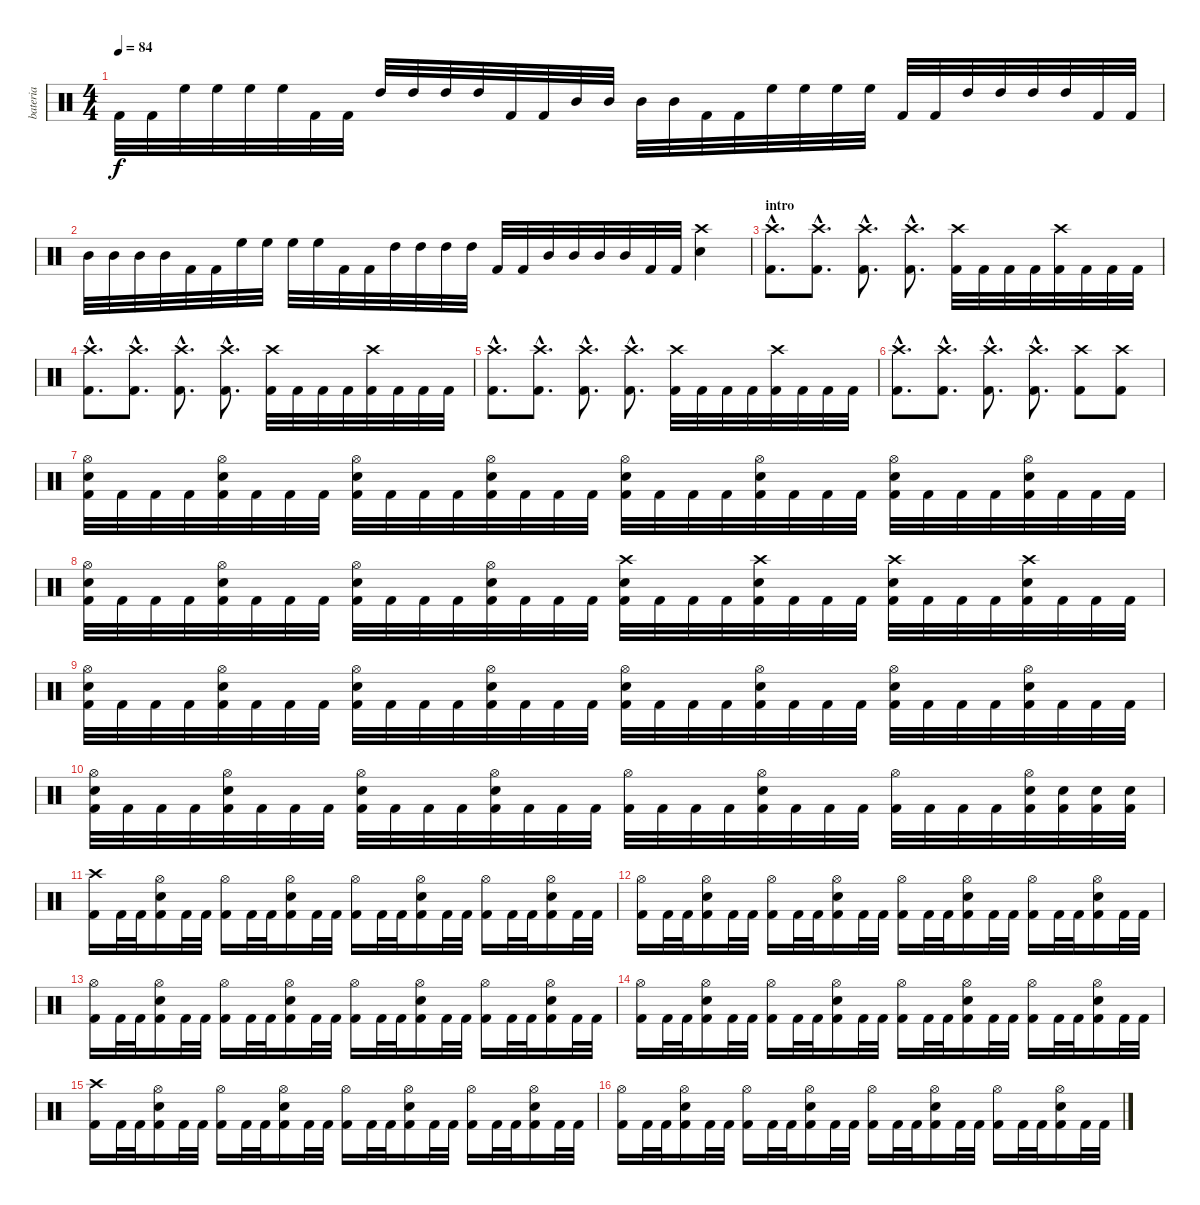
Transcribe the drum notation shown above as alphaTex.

\track ("bateria" "bateria") {instrument percussion}
\staff {score}
\articulation defaults
\ts (4 4)
\tempo 84
\clef neutral
\ks c "Kick (hit) 2".32{dy f} "Kick (hit) 2".32 "High Floor Tom (hit)".32 "High Floor Tom (hit)".32 "High Floor Tom (hit)".32 "High Floor Tom (hit)".32 "Kick (hit) 2".32 "Kick (hit) 2".32 "High Tom (hit)".32 "High Tom (hit)".32 "High Tom (hit)".32 "High Tom (hit)".32 "Kick (hit) 2".32 "Kick (hit) 2".32 "Mid Tom (hit)".32 "Mid Tom (hit)".32 "Mid Tom (hit)".32 "Mid Tom (hit)".32 "Kick (hit) 2".32 "Kick (hit) 2".32 "High Floor Tom (hit)".32 "High Floor Tom (hit)".32 "High Floor Tom (hit)".32 "High Floor Tom (hit)".32 "Kick (hit) 2".32 "Kick (hit) 2".32 "High Tom (hit)".32 "High Tom (hit)".32 "High Tom (hit)".32 "High Tom (hit)".32 "Kick (hit) 2".32 "Kick (hit) 2".32
|
"Mid Tom (hit)".32 "Mid Tom (hit)".32 "Mid Tom (hit)".32 "Mid Tom (hit)".32 "Kick (hit) 2".32 "Kick (hit) 2".32 "High Floor Tom (hit)".32 "High Floor Tom (hit)".32 "High Floor Tom (hit)".32 "High Floor Tom (hit)".32 "Kick (hit) 2".32 "Kick (hit) 2".32 "High Tom (hit)".32 "High Tom (hit)".32 "High Tom (hit)".32 "High Tom (hit)".32 "Kick (hit) 2".32 "Kick (hit) 2".32 "Mid Tom (hit)".32 "Mid Tom (hit)".32 "Mid Tom (hit)".32 "Mid Tom (hit)".32 "Kick (hit) 2".32 "Kick (hit) 2".32 ("Electric Snare (hit)" "Crash high (hit)").4 |
\section ("" "intro")
("Kick (hit) 2"{hac} "Crash high (hit)"{hac}).8{d} ("Kick (hit) 2"{hac} "Crash high (hit)"{hac}).8{d} ("Kick (hit) 2"{hac} "Crash high (hit)"{hac}).8{d} ("Kick (hit) 2"{hac} "Crash high (hit)"{hac}).8{d} ("Kick (hit) 2" "Crash high (hit)").32 "Kick (hit) 2".32 "Kick (hit) 2".32 "Kick (hit) 2".32 ("Kick (hit) 2" "Crash high (hit)").32 "Kick (hit) 2".32 "Kick (hit) 2".32 "Kick (hit) 2".32 |
("Kick (hit) 2"{hac} "Crash high (hit)"{hac}).8{d} ("Kick (hit) 2"{hac} "Crash high (hit)"{hac}).8{d} ("Kick (hit) 2"{hac} "Crash high (hit)"{hac}).8{d} ("Kick (hit) 2"{hac} "Crash high (hit)"{hac}).8{d} ("Kick (hit) 2" "Crash high (hit)").32 "Kick (hit) 2".32 "Kick (hit) 2".32 "Kick (hit) 2".32 ("Kick (hit) 2" "Crash high (hit)").32 "Kick (hit) 2".32 "Kick (hit) 2".32 "Kick (hit) 2".32 |
("Kick (hit) 2"{hac} "Crash high (hit)"{hac}).8{d} ("Kick (hit) 2"{hac} "Crash high (hit)"{hac}).8{d} ("Kick (hit) 2"{hac} "Crash high (hit)"{hac}).8{d} ("Kick (hit) 2"{hac} "Crash high (hit)"{hac}).8{d} ("Kick (hit) 2" "Crash high (hit)").32 "Kick (hit) 2".32 "Kick (hit) 2".32 "Kick (hit) 2".32 ("Kick (hit) 2" "Crash high (hit)").32 "Kick (hit) 2".32 "Kick (hit) 2".32 "Kick (hit) 2".32 |
("Kick (hit) 2"{hac} "Crash high (hit)"{hac}).8{d} ("Kick (hit) 2"{hac} "Crash high (hit)"{hac}).8{d} ("Kick (hit) 2"{hac} "Crash high (hit)"{hac}).8{d} ("Kick (hit) 2"{hac} "Crash high (hit)"{hac}).8{d} ("Kick (hit) 2" "Crash high (hit)").8 ("Kick (hit) 2" "Crash high (hit)").8 |
("Kick (hit) 2" "Electric Snare (hit)" "Hi-Hat (open)").32 "Kick (hit) 2".32 "Kick (hit) 2".32 "Kick (hit) 2".32 ("Kick (hit) 2" "Electric Snare (hit)" "Hi-Hat (open)").32 "Kick (hit) 2".32 "Kick (hit) 2".32 "Kick (hit) 2".32 ("Kick (hit) 2" "Electric Snare (hit)" "Hi-Hat (open)").32 "Kick (hit) 2".32 "Kick (hit) 2".32 "Kick (hit) 2".32 ("Kick (hit) 2" "Electric Snare (hit)" "Hi-Hat (open)").32 "Kick (hit) 2".32 "Kick (hit) 2".32 "Kick (hit) 2".32 ("Kick (hit) 2" "Electric Snare (hit)" "Hi-Hat (open)").32 "Kick (hit) 2".32 "Kick (hit) 2".32 "Kick (hit) 2".32 ("Kick (hit) 2" "Electric Snare (hit)" "Hi-Hat (open)").32 "Kick (hit) 2".32 "Kick (hit) 2".32 "Kick (hit) 2".32 ("Kick (hit) 2" "Electric Snare (hit)" "Hi-Hat (open)").32 "Kick (hit) 2".32 "Kick (hit) 2".32 "Kick (hit) 2".32 ("Kick (hit) 2" "Electric Snare (hit)" "Hi-Hat (open)").32 "Kick (hit) 2".32 "Kick (hit) 2".32 "Kick (hit) 2".32 |
("Kick (hit) 2" "Electric Snare (hit)" "Hi-Hat (open)").32 "Kick (hit) 2".32 "Kick (hit) 2".32 "Kick (hit) 2".32 ("Kick (hit) 2" "Electric Snare (hit)" "Hi-Hat (open)").32 "Kick (hit) 2".32 "Kick (hit) 2".32 "Kick (hit) 2".32 ("Kick (hit) 2" "Electric Snare (hit)" "Hi-Hat (open)").32 "Kick (hit) 2".32 "Kick (hit) 2".32 "Kick (hit) 2".32 ("Kick (hit) 2" "Electric Snare (hit)" "Hi-Hat (open)").32 "Kick (hit) 2".32 "Kick (hit) 2".32 "Kick (hit) 2".32 ("Kick (hit) 2" "Electric Snare (hit)" "Crash high (hit)").32 "Kick (hit) 2".32 "Kick (hit) 2".32 "Kick (hit) 2".32 ("Kick (hit) 2" "Electric Snare (hit)" "Crash high (hit)").32 "Kick (hit) 2".32 "Kick (hit) 2".32 "Kick (hit) 2".32 ("Kick (hit) 2" "Electric Snare (hit)" "Crash high (hit)").32 "Kick (hit) 2".32 "Kick (hit) 2".32 "Kick (hit) 2".32 ("Kick (hit) 2" "Electric Snare (hit)" "Crash high (hit)").32 "Kick (hit) 2".32 "Kick (hit) 2".32 "Kick (hit) 2".32 |
("Kick (hit) 2" "Electric Snare (hit)" "Hi-Hat (open)").32 "Kick (hit) 2".32 "Kick (hit) 2".32 "Kick (hit) 2".32 ("Kick (hit) 2" "Electric Snare (hit)" "Hi-Hat (open)").32 "Kick (hit) 2".32 "Kick (hit) 2".32 "Kick (hit) 2".32 ("Kick (hit) 2" "Electric Snare (hit)" "Hi-Hat (open)").32 "Kick (hit) 2".32 "Kick (hit) 2".32 "Kick (hit) 2".32 ("Kick (hit) 2" "Electric Snare (hit)" "Hi-Hat (open)").32 "Kick (hit) 2".32 "Kick (hit) 2".32 "Kick (hit) 2".32 ("Kick (hit) 2" "Electric Snare (hit)" "Hi-Hat (open)").32 "Kick (hit) 2".32 "Kick (hit) 2".32 "Kick (hit) 2".32 ("Kick (hit) 2" "Electric Snare (hit)" "Hi-Hat (open)").32 "Kick (hit) 2".32 "Kick (hit) 2".32 "Kick (hit) 2".32 ("Kick (hit) 2" "Electric Snare (hit)" "Hi-Hat (open)").32 "Kick (hit) 2".32 "Kick (hit) 2".32 "Kick (hit) 2".32 ("Kick (hit) 2" "Electric Snare (hit)" "Hi-Hat (open)").32 "Kick (hit) 2".32 "Kick (hit) 2".32 "Kick (hit) 2".32 |
("Kick (hit) 2" "Electric Snare (hit)" "Hi-Hat (open)").32 "Kick (hit) 2".32 "Kick (hit) 2".32 "Kick (hit) 2".32 ("Kick (hit) 2" "Electric Snare (hit)" "Hi-Hat (open)").32 "Kick (hit) 2".32 "Kick (hit) 2".32 "Kick (hit) 2".32 ("Kick (hit) 2" "Electric Snare (hit)" "Hi-Hat (open)").32 "Kick (hit) 2".32 "Kick (hit) 2".32 "Kick (hit) 2".32 ("Kick (hit) 2" "Electric Snare (hit)" "Hi-Hat (open)").32 "Kick (hit) 2".32 "Kick (hit) 2".32 "Kick (hit) 2".32 ("Kick (hit) 2" "Hi-Hat (open)").32 "Kick (hit) 2".32 "Kick (hit) 2".32 "Kick (hit) 2".32 ("Kick (hit) 2" "Electric Snare (hit)" "Hi-Hat (open)").32 "Kick (hit) 2".32 "Kick (hit) 2".32 "Kick (hit) 2".32 ("Kick (hit) 2" "Hi-Hat (open)").32 "Kick (hit) 2".32 "Kick (hit) 2".32 "Kick (hit) 2".32 ("Kick (hit) 2" "Electric Snare (hit)" "Hi-Hat (open)").32 ("Kick (hit) 2" "Electric Snare (hit)").32 ("Kick (hit) 2" "Electric Snare (hit)").32 ("Kick (hit) 2" "Electric Snare (hit)").32 |
("Kick (hit) 2" "Crash high (hit)").16 "Kick (hit) 2".32 "Kick (hit) 2".32 ("Kick (hit) 2" "Electric Snare (hit)" "Hi-Hat (open)").16 "Kick (hit) 2".32 "Kick (hit) 2".32 ("Kick (hit) 2" "Hi-Hat (open)").16 "Kick (hit) 2".32 "Kick (hit) 2".32 ("Kick (hit) 2" "Electric Snare (hit)" "Hi-Hat (open)").16 "Kick (hit) 2".32 "Kick (hit) 2".32 ("Kick (hit) 2" "Hi-Hat (open)").16 "Kick (hit) 2".32 "Kick (hit) 2".32 ("Kick (hit) 2" "Electric Snare (hit)" "Hi-Hat (open)").16 "Kick (hit) 2".32 "Kick (hit) 2".32 ("Kick (hit) 2" "Hi-Hat (open)").16 "Kick (hit) 2".32 "Kick (hit) 2".32 ("Kick (hit) 2" "Electric Snare (hit)" "Hi-Hat (open)").16 "Kick (hit) 2".32 "Kick (hit) 2".32 |
("Kick (hit) 2" "Hi-Hat (open)").16 "Kick (hit) 2".32 "Kick (hit) 2".32 ("Kick (hit) 2" "Electric Snare (hit)" "Hi-Hat (open)").16 "Kick (hit) 2".32 "Kick (hit) 2".32 ("Kick (hit) 2" "Hi-Hat (open)").16 "Kick (hit) 2".32 "Kick (hit) 2".32 ("Kick (hit) 2" "Electric Snare (hit)" "Hi-Hat (open)").16 "Kick (hit) 2".32 "Kick (hit) 2".32 ("Kick (hit) 2" "Hi-Hat (open)").16 "Kick (hit) 2".32 "Kick (hit) 2".32 ("Kick (hit) 2" "Electric Snare (hit)" "Hi-Hat (open)").16 "Kick (hit) 2".32 "Kick (hit) 2".32 ("Kick (hit) 2" "Hi-Hat (open)").16 "Kick (hit) 2".32 "Kick (hit) 2".32 ("Kick (hit) 2" "Electric Snare (hit)" "Hi-Hat (open)").16 "Kick (hit) 2".32 "Kick (hit) 2".32 |
("Kick (hit) 2" "Hi-Hat (open)").16 "Kick (hit) 2".32 "Kick (hit) 2".32 ("Kick (hit) 2" "Electric Snare (hit)" "Hi-Hat (open)").16 "Kick (hit) 2".32 "Kick (hit) 2".32 ("Kick (hit) 2" "Hi-Hat (open)").16 "Kick (hit) 2".32 "Kick (hit) 2".32 ("Kick (hit) 2" "Electric Snare (hit)" "Hi-Hat (open)").16 "Kick (hit) 2".32 "Kick (hit) 2".32 ("Kick (hit) 2" "Hi-Hat (open)").16 "Kick (hit) 2".32 "Kick (hit) 2".32 ("Kick (hit) 2" "Electric Snare (hit)" "Hi-Hat (open)").16 "Kick (hit) 2".32 "Kick (hit) 2".32 ("Kick (hit) 2" "Hi-Hat (open)").16 "Kick (hit) 2".32 "Kick (hit) 2".32 ("Kick (hit) 2" "Electric Snare (hit)" "Hi-Hat (open)").16 "Kick (hit) 2".32 "Kick (hit) 2".32 |
("Kick (hit) 2" "Hi-Hat (open)").16 "Kick (hit) 2".32 "Kick (hit) 2".32 ("Kick (hit) 2" "Electric Snare (hit)" "Hi-Hat (open)").16 "Kick (hit) 2".32 "Kick (hit) 2".32 ("Kick (hit) 2" "Hi-Hat (open)").16 "Kick (hit) 2".32 "Kick (hit) 2".32 ("Kick (hit) 2" "Electric Snare (hit)" "Hi-Hat (open)").16 "Kick (hit) 2".32 "Kick (hit) 2".32 ("Kick (hit) 2" "Hi-Hat (open)").16 "Kick (hit) 2".32 "Kick (hit) 2".32 ("Kick (hit) 2" "Electric Snare (hit)" "Hi-Hat (open)").16 "Kick (hit) 2".32 "Kick (hit) 2".32 ("Kick (hit) 2" "Hi-Hat (open)").16 "Kick (hit) 2".32 "Kick (hit) 2".32 ("Kick (hit) 2" "Electric Snare (hit)" "Hi-Hat (open)").16 "Kick (hit) 2".32 "Kick (hit) 2".32 |
("Kick (hit) 2" "Crash high (hit)").16 "Kick (hit) 2".32 "Kick (hit) 2".32 ("Kick (hit) 2" "Electric Snare (hit)" "Hi-Hat (open)").16 "Kick (hit) 2".32 "Kick (hit) 2".32 ("Kick (hit) 2" "Hi-Hat (open)").16 "Kick (hit) 2".32 "Kick (hit) 2".32 ("Kick (hit) 2" "Electric Snare (hit)" "Hi-Hat (open)").16 "Kick (hit) 2".32 "Kick (hit) 2".32 ("Kick (hit) 2" "Hi-Hat (open)").16 "Kick (hit) 2".32 "Kick (hit) 2".32 ("Kick (hit) 2" "Electric Snare (hit)" "Hi-Hat (open)").16 "Kick (hit) 2".32 "Kick (hit) 2".32 ("Kick (hit) 2" "Hi-Hat (open)").16 "Kick (hit) 2".32 "Kick (hit) 2".32 ("Kick (hit) 2" "Electric Snare (hit)" "Hi-Hat (open)").16 "Kick (hit) 2".32 "Kick (hit) 2".32 |
("Kick (hit) 2" "Hi-Hat (open)").16 "Kick (hit) 2".32 "Kick (hit) 2".32 ("Kick (hit) 2" "Electric Snare (hit)" "Hi-Hat (open)").16 "Kick (hit) 2".32 "Kick (hit) 2".32 ("Kick (hit) 2" "Hi-Hat (open)").16 "Kick (hit) 2".32 "Kick (hit) 2".32 ("Kick (hit) 2" "Electric Snare (hit)" "Hi-Hat (open)").16 "Kick (hit) 2".32 "Kick (hit) 2".32 ("Kick (hit) 2" "Hi-Hat (open)").16 "Kick (hit) 2".32 "Kick (hit) 2".32 ("Kick (hit) 2" "Electric Snare (hit)" "Hi-Hat (open)").16 "Kick (hit) 2".32 "Kick (hit) 2".32 ("Kick (hit) 2" "Hi-Hat (open)").16 "Kick (hit) 2".32 "Kick (hit) 2".32 ("Kick (hit) 2" "Electric Snare (hit)" "Hi-Hat (open)").16 "Kick (hit) 2".32 "Kick (hit) 2".32
